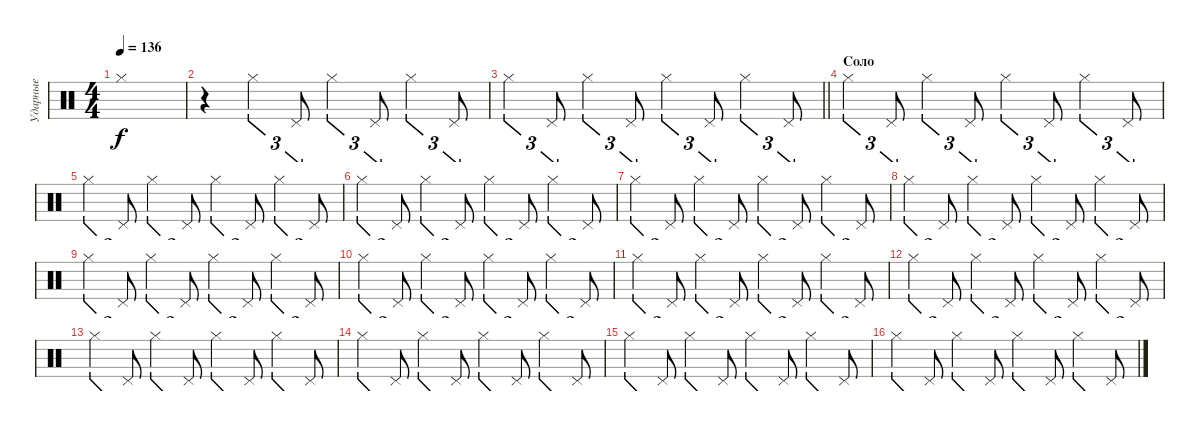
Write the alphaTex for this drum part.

\track ("Ударные" "Ударные") {instrument percussion}
\staff {score}
\articulation defaults
\ts (4 4)
\tempo 136
\clef neutral
\ks c "Hi-Hat (closed)".1{dy f}
|
r.4 "Hi-Hat (closed)".4{tu (3 2)} "Pedal Hi-Hat (hit)".8{tu (3 2)} "Hi-Hat (closed)".4{tu (3 2)} "Pedal Hi-Hat (hit)".8{tu (3 2)} "Hi-Hat (closed)".4{tu (3 2)} "Pedal Hi-Hat (hit)".8{tu (3 2)} |
\barLineRight lightlight "Hi-Hat (closed)".4{tu (3 2)} "Pedal Hi-Hat (hit)".8{tu (3 2)} "Hi-Hat (closed)".4{tu (3 2)} "Pedal Hi-Hat (hit)".8{tu (3 2)} "Hi-Hat (closed)".4{tu (3 2)} "Pedal Hi-Hat (hit)".8{tu (3 2)} "Hi-Hat (closed)".4{tu (3 2)} "Pedal Hi-Hat (hit)".8{tu (3 2)}
|
\section ("" "Соло")
"Hi-Hat (closed)".4{tu (3 2)} "Pedal Hi-Hat (hit)".8{tu (3 2)} "Hi-Hat (closed)".4{tu (3 2)} "Pedal Hi-Hat (hit)".8{tu (3 2)} "Hi-Hat (closed)".4{tu (3 2)} "Pedal Hi-Hat (hit)".8{tu (3 2)} "Hi-Hat (closed)".4{tu (3 2)} "Pedal Hi-Hat (hit)".8{tu (3 2)} |
"Hi-Hat (closed)".4{tu (3 2)} "Pedal Hi-Hat (hit)".8{tu (3 2)} "Hi-Hat (closed)".4{tu (3 2)} "Pedal Hi-Hat (hit)".8{tu (3 2)} "Hi-Hat (closed)".4{tu (3 2)} "Pedal Hi-Hat (hit)".8{tu (3 2)} "Hi-Hat (closed)".4{tu (3 2)} "Pedal Hi-Hat (hit)".8{tu (3 2)} |
"Hi-Hat (closed)".4{tu (3 2)} "Pedal Hi-Hat (hit)".8{tu (3 2)} "Hi-Hat (closed)".4{tu (3 2)} "Pedal Hi-Hat (hit)".8{tu (3 2)} "Hi-Hat (closed)".4{tu (3 2)} "Pedal Hi-Hat (hit)".8{tu (3 2)} "Hi-Hat (closed)".4{tu (3 2)} "Pedal Hi-Hat (hit)".8{tu (3 2)} |
"Hi-Hat (closed)".4{tu (3 2)} "Pedal Hi-Hat (hit)".8{tu (3 2)} "Hi-Hat (closed)".4{tu (3 2)} "Pedal Hi-Hat (hit)".8{tu (3 2)} "Hi-Hat (closed)".4{tu (3 2)} "Pedal Hi-Hat (hit)".8{tu (3 2)} "Hi-Hat (closed)".4{tu (3 2)} "Pedal Hi-Hat (hit)".8{tu (3 2)} |
"Hi-Hat (closed)".4{tu (3 2)} "Pedal Hi-Hat (hit)".8{tu (3 2)} "Hi-Hat (closed)".4{tu (3 2)} "Pedal Hi-Hat (hit)".8{tu (3 2)} "Hi-Hat (closed)".4{tu (3 2)} "Pedal Hi-Hat (hit)".8{tu (3 2)} "Hi-Hat (closed)".4{tu (3 2)} "Pedal Hi-Hat (hit)".8{tu (3 2)} |
"Hi-Hat (closed)".4{tu (3 2)} "Pedal Hi-Hat (hit)".8{tu (3 2)} "Hi-Hat (closed)".4{tu (3 2)} "Pedal Hi-Hat (hit)".8{tu (3 2)} "Hi-Hat (closed)".4{tu (3 2)} "Pedal Hi-Hat (hit)".8{tu (3 2)} "Hi-Hat (closed)".4{tu (3 2)} "Pedal Hi-Hat (hit)".8{tu (3 2)} |
"Hi-Hat (closed)".4{tu (3 2)} "Pedal Hi-Hat (hit)".8{tu (3 2)} "Hi-Hat (closed)".4{tu (3 2)} "Pedal Hi-Hat (hit)".8{tu (3 2)} "Hi-Hat (closed)".4{tu (3 2)} "Pedal Hi-Hat (hit)".8{tu (3 2)} "Hi-Hat (closed)".4{tu (3 2)} "Pedal Hi-Hat (hit)".8{tu (3 2)} |
"Hi-Hat (closed)".4{tu (3 2)} "Pedal Hi-Hat (hit)".8{tu (3 2)} "Hi-Hat (closed)".4{tu (3 2)} "Pedal Hi-Hat (hit)".8{tu (3 2)} "Hi-Hat (closed)".4{tu (3 2)} "Pedal Hi-Hat (hit)".8{tu (3 2)} "Hi-Hat (closed)".4{tu (3 2)} "Pedal Hi-Hat (hit)".8{tu (3 2)} |
"Hi-Hat (closed)".4{tu (3 2)} "Pedal Hi-Hat (hit)".8{tu (3 2)} "Hi-Hat (closed)".4{tu (3 2)} "Pedal Hi-Hat (hit)".8{tu (3 2)} "Hi-Hat (closed)".4{tu (3 2)} "Pedal Hi-Hat (hit)".8{tu (3 2)} "Hi-Hat (closed)".4{tu (3 2)} "Pedal Hi-Hat (hit)".8{tu (3 2)} |
"Hi-Hat (closed)".4{tu (3 2)} "Pedal Hi-Hat (hit)".8{tu (3 2)} "Hi-Hat (closed)".4{tu (3 2)} "Pedal Hi-Hat (hit)".8{tu (3 2)} "Hi-Hat (closed)".4{tu (3 2)} "Pedal Hi-Hat (hit)".8{tu (3 2)} "Hi-Hat (closed)".4{tu (3 2)} "Pedal Hi-Hat (hit)".8{tu (3 2)} |
"Hi-Hat (closed)".4{tu (3 2)} "Pedal Hi-Hat (hit)".8{tu (3 2)} "Hi-Hat (closed)".4{tu (3 2)} "Pedal Hi-Hat (hit)".8{tu (3 2)} "Hi-Hat (closed)".4{tu (3 2)} "Pedal Hi-Hat (hit)".8{tu (3 2)} "Hi-Hat (closed)".4{tu (3 2)} "Pedal Hi-Hat (hit)".8{tu (3 2)} |
"Hi-Hat (closed)".4{tu (3 2)} "Pedal Hi-Hat (hit)".8{tu (3 2)} "Hi-Hat (closed)".4{tu (3 2)} "Pedal Hi-Hat (hit)".8{tu (3 2)} "Hi-Hat (closed)".4{tu (3 2)} "Pedal Hi-Hat (hit)".8{tu (3 2)} "Hi-Hat (closed)".4{tu (3 2)} "Pedal Hi-Hat (hit)".8{tu (3 2)} |
"Hi-Hat (closed)".4{tu (3 2)} "Pedal Hi-Hat (hit)".8{tu (3 2)} "Hi-Hat (closed)".4{tu (3 2)} "Pedal Hi-Hat (hit)".8{tu (3 2)} "Hi-Hat (closed)".4{tu (3 2)} "Pedal Hi-Hat (hit)".8{tu (3 2)} "Hi-Hat (closed)".4{tu (3 2)} "Pedal Hi-Hat (hit)".8{tu (3 2)}
